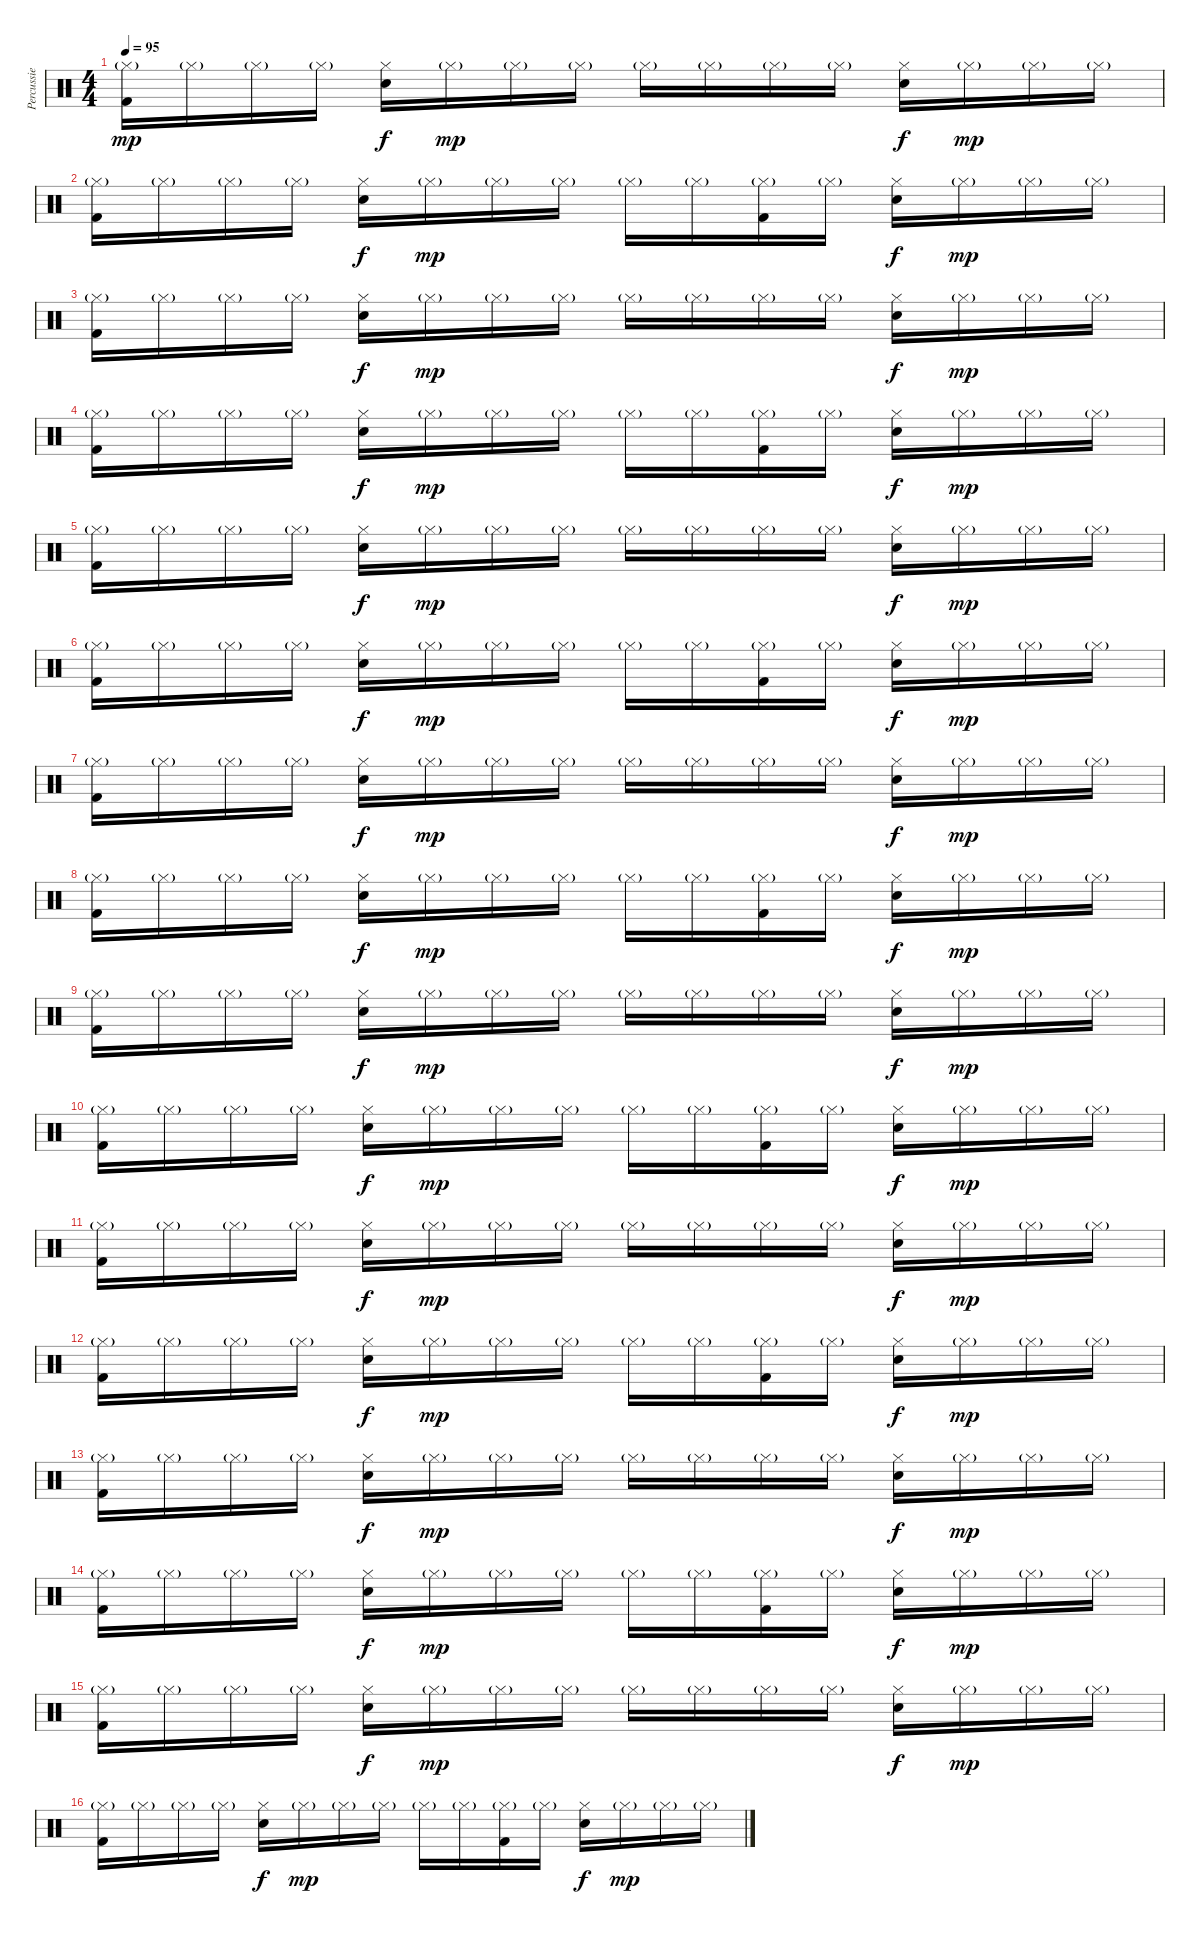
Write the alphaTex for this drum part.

\track ("Percussie" "Percussie") {instrument percussion}
\staff {score}
\articulation defaults
\ts (4 4)
\tempo 95
\clef neutral
\ks c
("Hi-Hat (closed)"{g} "Kick (hit) 2").16{dy mp} "Hi-Hat (closed)"{g}.16 "Hi-Hat (closed)"{g}.16 "Hi-Hat (closed)"{g}.16 ("Hi-Hat (closed)" "Snare (hit) 2").16{dy f} "Hi-Hat (closed)"{g}.16{dy mp} "Hi-Hat (closed)"{g}.16 "Hi-Hat (closed)"{g}.16 "Hi-Hat (closed)"{g}.16 "Hi-Hat (closed)"{g}.16 "Hi-Hat (closed)"{g}.16 "Hi-Hat (closed)"{g}.16 ("Hi-Hat (closed)" "Snare (hit) 2").16{dy f} "Hi-Hat (closed)"{g}.16{dy mp} "Hi-Hat (closed)"{g}.16 "Hi-Hat (closed)"{g}.16 |
("Hi-Hat (closed)"{g} "Kick (hit) 2").16 "Hi-Hat (closed)"{g}.16 "Hi-Hat (closed)"{g}.16 "Hi-Hat (closed)"{g}.16 ("Hi-Hat (closed)" "Snare (hit) 2").16{dy f} "Hi-Hat (closed)"{g}.16{dy mp} "Hi-Hat (closed)"{g}.16 "Hi-Hat (closed)"{g}.16 "Hi-Hat (closed)"{g}.16 "Hi-Hat (closed)"{g}.16 ("Hi-Hat (closed)"{g} "Kick (hit) 2").16 "Hi-Hat (closed)"{g}.16 ("Hi-Hat (closed)" "Snare (hit) 2").16{dy f} "Hi-Hat (closed)"{g}.16{dy mp} "Hi-Hat (closed)"{g}.16 "Hi-Hat (closed)"{g}.16 |
("Hi-Hat (closed)"{g} "Kick (hit) 2").16 "Hi-Hat (closed)"{g}.16 "Hi-Hat (closed)"{g}.16 "Hi-Hat (closed)"{g}.16 ("Hi-Hat (closed)" "Snare (hit) 2").16{dy f} "Hi-Hat (closed)"{g}.16{dy mp} "Hi-Hat (closed)"{g}.16 "Hi-Hat (closed)"{g}.16 "Hi-Hat (closed)"{g}.16 "Hi-Hat (closed)"{g}.16 "Hi-Hat (closed)"{g}.16 "Hi-Hat (closed)"{g}.16 ("Hi-Hat (closed)" "Snare (hit) 2").16{dy f} "Hi-Hat (closed)"{g}.16{dy mp} "Hi-Hat (closed)"{g}.16 "Hi-Hat (closed)"{g}.16 |
("Hi-Hat (closed)"{g} "Kick (hit) 2").16 "Hi-Hat (closed)"{g}.16 "Hi-Hat (closed)"{g}.16 "Hi-Hat (closed)"{g}.16 ("Hi-Hat (closed)" "Snare (hit) 2").16{dy f} "Hi-Hat (closed)"{g}.16{dy mp} "Hi-Hat (closed)"{g}.16 "Hi-Hat (closed)"{g}.16 "Hi-Hat (closed)"{g}.16 "Hi-Hat (closed)"{g}.16 ("Hi-Hat (closed)"{g} "Kick (hit) 2").16 "Hi-Hat (closed)"{g}.16 ("Hi-Hat (closed)" "Snare (hit) 2").16{dy f} "Hi-Hat (closed)"{g}.16{dy mp} "Hi-Hat (closed)"{g}.16 "Hi-Hat (closed)"{g}.16 |
("Hi-Hat (closed)"{g} "Kick (hit) 2").16 "Hi-Hat (closed)"{g}.16 "Hi-Hat (closed)"{g}.16 "Hi-Hat (closed)"{g}.16 ("Hi-Hat (closed)" "Snare (hit) 2").16{dy f} "Hi-Hat (closed)"{g}.16{dy mp} "Hi-Hat (closed)"{g}.16 "Hi-Hat (closed)"{g}.16 "Hi-Hat (closed)"{g}.16 "Hi-Hat (closed)"{g}.16 "Hi-Hat (closed)"{g}.16 "Hi-Hat (closed)"{g}.16 ("Hi-Hat (closed)" "Snare (hit) 2").16{dy f} "Hi-Hat (closed)"{g}.16{dy mp} "Hi-Hat (closed)"{g}.16 "Hi-Hat (closed)"{g}.16 |
("Hi-Hat (closed)"{g} "Kick (hit) 2").16 "Hi-Hat (closed)"{g}.16 "Hi-Hat (closed)"{g}.16 "Hi-Hat (closed)"{g}.16 ("Hi-Hat (closed)" "Snare (hit) 2").16{dy f} "Hi-Hat (closed)"{g}.16{dy mp} "Hi-Hat (closed)"{g}.16 "Hi-Hat (closed)"{g}.16 "Hi-Hat (closed)"{g}.16 "Hi-Hat (closed)"{g}.16 ("Hi-Hat (closed)"{g} "Kick (hit) 2").16 "Hi-Hat (closed)"{g}.16 ("Hi-Hat (closed)" "Snare (hit) 2").16{dy f} "Hi-Hat (closed)"{g}.16{dy mp} "Hi-Hat (closed)"{g}.16 "Hi-Hat (closed)"{g}.16 |
("Hi-Hat (closed)"{g} "Kick (hit) 2").16 "Hi-Hat (closed)"{g}.16 "Hi-Hat (closed)"{g}.16 "Hi-Hat (closed)"{g}.16 ("Hi-Hat (closed)" "Snare (hit) 2").16{dy f} "Hi-Hat (closed)"{g}.16{dy mp} "Hi-Hat (closed)"{g}.16 "Hi-Hat (closed)"{g}.16 "Hi-Hat (closed)"{g}.16 "Hi-Hat (closed)"{g}.16 "Hi-Hat (closed)"{g}.16 "Hi-Hat (closed)"{g}.16 ("Hi-Hat (closed)" "Snare (hit) 2").16{dy f} "Hi-Hat (closed)"{g}.16{dy mp} "Hi-Hat (closed)"{g}.16 "Hi-Hat (closed)"{g}.16 |
("Hi-Hat (closed)"{g} "Kick (hit) 2").16 "Hi-Hat (closed)"{g}.16 "Hi-Hat (closed)"{g}.16 "Hi-Hat (closed)"{g}.16 ("Hi-Hat (closed)" "Snare (hit) 2").16{dy f} "Hi-Hat (closed)"{g}.16{dy mp} "Hi-Hat (closed)"{g}.16 "Hi-Hat (closed)"{g}.16 "Hi-Hat (closed)"{g}.16 "Hi-Hat (closed)"{g}.16 ("Hi-Hat (closed)"{g} "Kick (hit) 2").16 "Hi-Hat (closed)"{g}.16 ("Hi-Hat (closed)" "Snare (hit) 2").16{dy f} "Hi-Hat (closed)"{g}.16{dy mp} "Hi-Hat (closed)"{g}.16 "Hi-Hat (closed)"{g}.16 |
("Hi-Hat (closed)"{g} "Kick (hit) 2").16 "Hi-Hat (closed)"{g}.16 "Hi-Hat (closed)"{g}.16 "Hi-Hat (closed)"{g}.16 ("Hi-Hat (closed)" "Snare (hit) 2").16{dy f} "Hi-Hat (closed)"{g}.16{dy mp} "Hi-Hat (closed)"{g}.16 "Hi-Hat (closed)"{g}.16 "Hi-Hat (closed)"{g}.16 "Hi-Hat (closed)"{g}.16 "Hi-Hat (closed)"{g}.16 "Hi-Hat (closed)"{g}.16 ("Hi-Hat (closed)" "Snare (hit) 2").16{dy f} "Hi-Hat (closed)"{g}.16{dy mp} "Hi-Hat (closed)"{g}.16 "Hi-Hat (closed)"{g}.16 |
("Hi-Hat (closed)"{g} "Kick (hit) 2").16 "Hi-Hat (closed)"{g}.16 "Hi-Hat (closed)"{g}.16 "Hi-Hat (closed)"{g}.16 ("Hi-Hat (closed)" "Snare (hit) 2").16{dy f} "Hi-Hat (closed)"{g}.16{dy mp} "Hi-Hat (closed)"{g}.16 "Hi-Hat (closed)"{g}.16 "Hi-Hat (closed)"{g}.16 "Hi-Hat (closed)"{g}.16 ("Hi-Hat (closed)"{g} "Kick (hit) 2").16 "Hi-Hat (closed)"{g}.16 ("Hi-Hat (closed)" "Snare (hit) 2").16{dy f} "Hi-Hat (closed)"{g}.16{dy mp} "Hi-Hat (closed)"{g}.16 "Hi-Hat (closed)"{g}.16 |
("Hi-Hat (closed)"{g} "Kick (hit) 2").16 "Hi-Hat (closed)"{g}.16 "Hi-Hat (closed)"{g}.16 "Hi-Hat (closed)"{g}.16 ("Hi-Hat (closed)" "Snare (hit) 2").16{dy f} "Hi-Hat (closed)"{g}.16{dy mp} "Hi-Hat (closed)"{g}.16 "Hi-Hat (closed)"{g}.16 "Hi-Hat (closed)"{g}.16 "Hi-Hat (closed)"{g}.16 "Hi-Hat (closed)"{g}.16 "Hi-Hat (closed)"{g}.16 ("Hi-Hat (closed)" "Snare (hit) 2").16{dy f} "Hi-Hat (closed)"{g}.16{dy mp} "Hi-Hat (closed)"{g}.16 "Hi-Hat (closed)"{g}.16 |
("Hi-Hat (closed)"{g} "Kick (hit) 2").16 "Hi-Hat (closed)"{g}.16 "Hi-Hat (closed)"{g}.16 "Hi-Hat (closed)"{g}.16 ("Hi-Hat (closed)" "Snare (hit) 2").16{dy f} "Hi-Hat (closed)"{g}.16{dy mp} "Hi-Hat (closed)"{g}.16 "Hi-Hat (closed)"{g}.16 "Hi-Hat (closed)"{g}.16 "Hi-Hat (closed)"{g}.16 ("Hi-Hat (closed)"{g} "Kick (hit) 2").16 "Hi-Hat (closed)"{g}.16 ("Hi-Hat (closed)" "Snare (hit) 2").16{dy f} "Hi-Hat (closed)"{g}.16{dy mp} "Hi-Hat (closed)"{g}.16 "Hi-Hat (closed)"{g}.16 |
("Hi-Hat (closed)"{g} "Kick (hit) 2").16 "Hi-Hat (closed)"{g}.16 "Hi-Hat (closed)"{g}.16 "Hi-Hat (closed)"{g}.16 ("Hi-Hat (closed)" "Snare (hit) 2").16{dy f} "Hi-Hat (closed)"{g}.16{dy mp} "Hi-Hat (closed)"{g}.16 "Hi-Hat (closed)"{g}.16 "Hi-Hat (closed)"{g}.16 "Hi-Hat (closed)"{g}.16 "Hi-Hat (closed)"{g}.16 "Hi-Hat (closed)"{g}.16 ("Hi-Hat (closed)" "Snare (hit) 2").16{dy f} "Hi-Hat (closed)"{g}.16{dy mp} "Hi-Hat (closed)"{g}.16 "Hi-Hat (closed)"{g}.16 |
("Hi-Hat (closed)"{g} "Kick (hit) 2").16 "Hi-Hat (closed)"{g}.16 "Hi-Hat (closed)"{g}.16 "Hi-Hat (closed)"{g}.16 ("Hi-Hat (closed)" "Snare (hit) 2").16{dy f} "Hi-Hat (closed)"{g}.16{dy mp} "Hi-Hat (closed)"{g}.16 "Hi-Hat (closed)"{g}.16 "Hi-Hat (closed)"{g}.16 "Hi-Hat (closed)"{g}.16 ("Hi-Hat (closed)"{g} "Kick (hit) 2").16 "Hi-Hat (closed)"{g}.16 ("Hi-Hat (closed)" "Snare (hit) 2").16{dy f} "Hi-Hat (closed)"{g}.16{dy mp} "Hi-Hat (closed)"{g}.16 "Hi-Hat (closed)"{g}.16 |
("Hi-Hat (closed)"{g} "Kick (hit) 2").16 "Hi-Hat (closed)"{g}.16 "Hi-Hat (closed)"{g}.16 "Hi-Hat (closed)"{g}.16 ("Hi-Hat (closed)" "Snare (hit) 2").16{dy f} "Hi-Hat (closed)"{g}.16{dy mp} "Hi-Hat (closed)"{g}.16 "Hi-Hat (closed)"{g}.16 "Hi-Hat (closed)"{g}.16 "Hi-Hat (closed)"{g}.16 "Hi-Hat (closed)"{g}.16 "Hi-Hat (closed)"{g}.16 ("Hi-Hat (closed)" "Snare (hit) 2").16{dy f} "Hi-Hat (closed)"{g}.16{dy mp} "Hi-Hat (closed)"{g}.16 "Hi-Hat (closed)"{g}.16 |
("Hi-Hat (closed)"{g} "Kick (hit) 2").16 "Hi-Hat (closed)"{g}.16 "Hi-Hat (closed)"{g}.16 "Hi-Hat (closed)"{g}.16 ("Hi-Hat (closed)" "Snare (hit) 2").16{dy f} "Hi-Hat (closed)"{g}.16{dy mp} "Hi-Hat (closed)"{g}.16 "Hi-Hat (closed)"{g}.16 "Hi-Hat (closed)"{g}.16 "Hi-Hat (closed)"{g}.16 ("Hi-Hat (closed)"{g} "Kick (hit) 2").16 "Hi-Hat (closed)"{g}.16 ("Hi-Hat (closed)" "Snare (hit) 2").16{dy f} "Hi-Hat (closed)"{g}.16{dy mp} "Hi-Hat (closed)"{g}.16 "Hi-Hat (closed)"{g}.16
